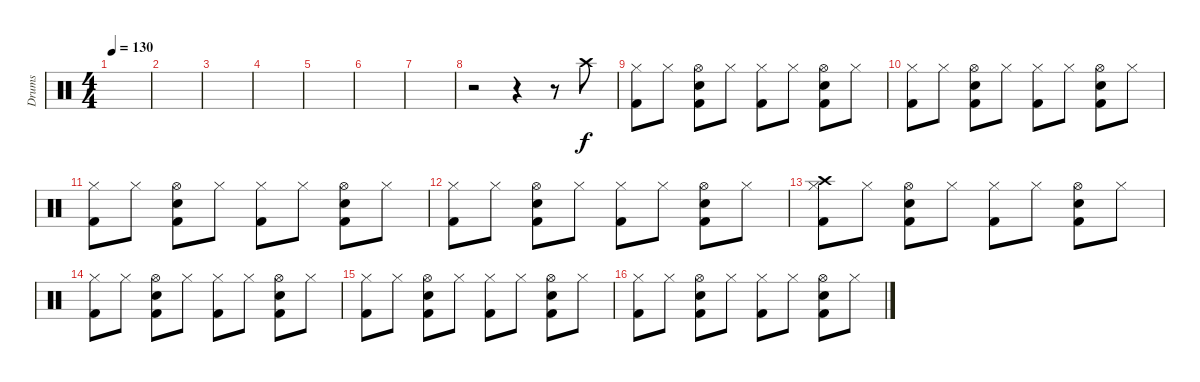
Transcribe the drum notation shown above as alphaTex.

\track ("Drums" "Drums") {instrument percussion}
\staff {score}
\articulation defaults
\ts (4 4)
\tempo 130
\clef neutral
\ks c
|
|
|
|
|
|
|
r.2 r.4 r.8 "Crash high (hit)".8 |
("Hi-Hat (closed)" "Kick (hit) 2").8 "Hi-Hat (closed)".8 ("Hi-Hat (open)" "Electric Snare (hit)" "Kick (hit) 2").8 "Hi-Hat (closed)".8 ("Hi-Hat (closed)" "Kick (hit) 2").8 "Hi-Hat (closed)".8 ("Hi-Hat (open)" "Electric Snare (hit)" "Kick (hit) 2").8 "Hi-Hat (closed)".8 |
("Hi-Hat (closed)" "Kick (hit) 2").8 "Hi-Hat (closed)".8 ("Hi-Hat (open)" "Electric Snare (hit)" "Kick (hit) 2").8 "Hi-Hat (closed)".8 ("Hi-Hat (closed)" "Kick (hit) 2").8 "Hi-Hat (closed)".8 ("Hi-Hat (open)" "Electric Snare (hit)" "Kick (hit) 2").8 "Hi-Hat (closed)".8 |
("Hi-Hat (closed)" "Kick (hit) 2").8 "Hi-Hat (closed)".8 ("Hi-Hat (open)" "Electric Snare (hit)" "Kick (hit) 2").8 "Hi-Hat (closed)".8 ("Hi-Hat (closed)" "Kick (hit) 2").8 "Hi-Hat (closed)".8 ("Hi-Hat (open)" "Electric Snare (hit)" "Kick (hit) 2").8 "Hi-Hat (closed)".8 |
("Hi-Hat (closed)" "Kick (hit) 2").8 "Hi-Hat (closed)".8 ("Hi-Hat (open)" "Electric Snare (hit)" "Kick (hit) 2").8 "Hi-Hat (closed)".8 ("Hi-Hat (closed)" "Kick (hit) 2").8 "Hi-Hat (closed)".8 ("Hi-Hat (open)" "Electric Snare (hit)" "Kick (hit) 2").8 "Hi-Hat (closed)".8 |
("Crash high (hit)" "Hi-Hat (closed)" "Kick (hit) 2").8 "Hi-Hat (closed)".8 ("Hi-Hat (open)" "Electric Snare (hit)" "Kick (hit) 2").8 "Hi-Hat (closed)".8 ("Hi-Hat (closed)" "Kick (hit) 2").8 "Hi-Hat (closed)".8 ("Hi-Hat (open)" "Electric Snare (hit)" "Kick (hit) 2").8 "Hi-Hat (closed)".8 |
("Hi-Hat (closed)" "Kick (hit) 2").8 "Hi-Hat (closed)".8 ("Hi-Hat (open)" "Electric Snare (hit)" "Kick (hit) 2").8 "Hi-Hat (closed)".8 ("Hi-Hat (closed)" "Kick (hit) 2").8 "Hi-Hat (closed)".8 ("Hi-Hat (open)" "Electric Snare (hit)" "Kick (hit) 2").8 "Hi-Hat (closed)".8 |
("Hi-Hat (closed)" "Kick (hit) 2").8 "Hi-Hat (closed)".8 ("Hi-Hat (open)" "Electric Snare (hit)" "Kick (hit) 2").8 "Hi-Hat (closed)".8 ("Hi-Hat (closed)" "Kick (hit) 2").8 "Hi-Hat (closed)".8 ("Hi-Hat (open)" "Electric Snare (hit)" "Kick (hit) 2").8 "Hi-Hat (closed)".8 |
("Hi-Hat (closed)" "Kick (hit) 2").8 "Hi-Hat (closed)".8 ("Hi-Hat (open)" "Electric Snare (hit)" "Kick (hit) 2").8 "Hi-Hat (closed)".8 ("Hi-Hat (closed)" "Kick (hit) 2").8 "Hi-Hat (closed)".8 ("Hi-Hat (open)" "Electric Snare (hit)" "Kick (hit) 2").8 "Hi-Hat (closed)".8
